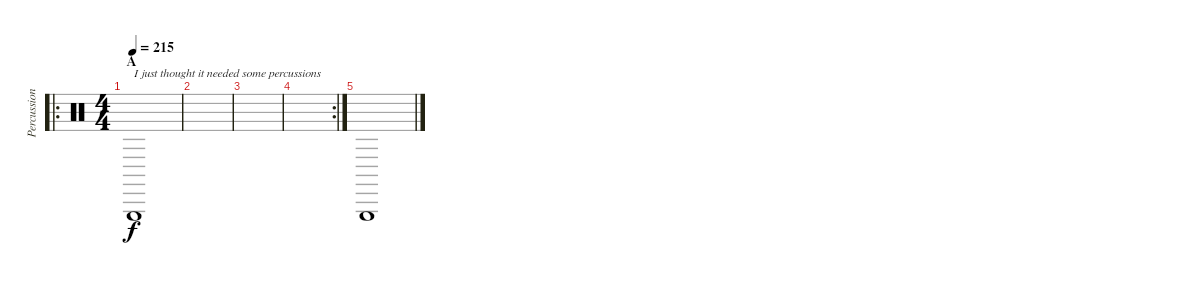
\track ("Percussion" "Percussion") {instrument percussion}
\staff {score}
\articulation defaults
\ro
\ts (4 4)
\section ("" "A")
\tempo 215
\clef neutral
\ks c "Triangle (hit)".1{txt "I just thought it needed some percussions" dy f}
|
|
|
\rc 2
|
"Triangle (hit)".1
